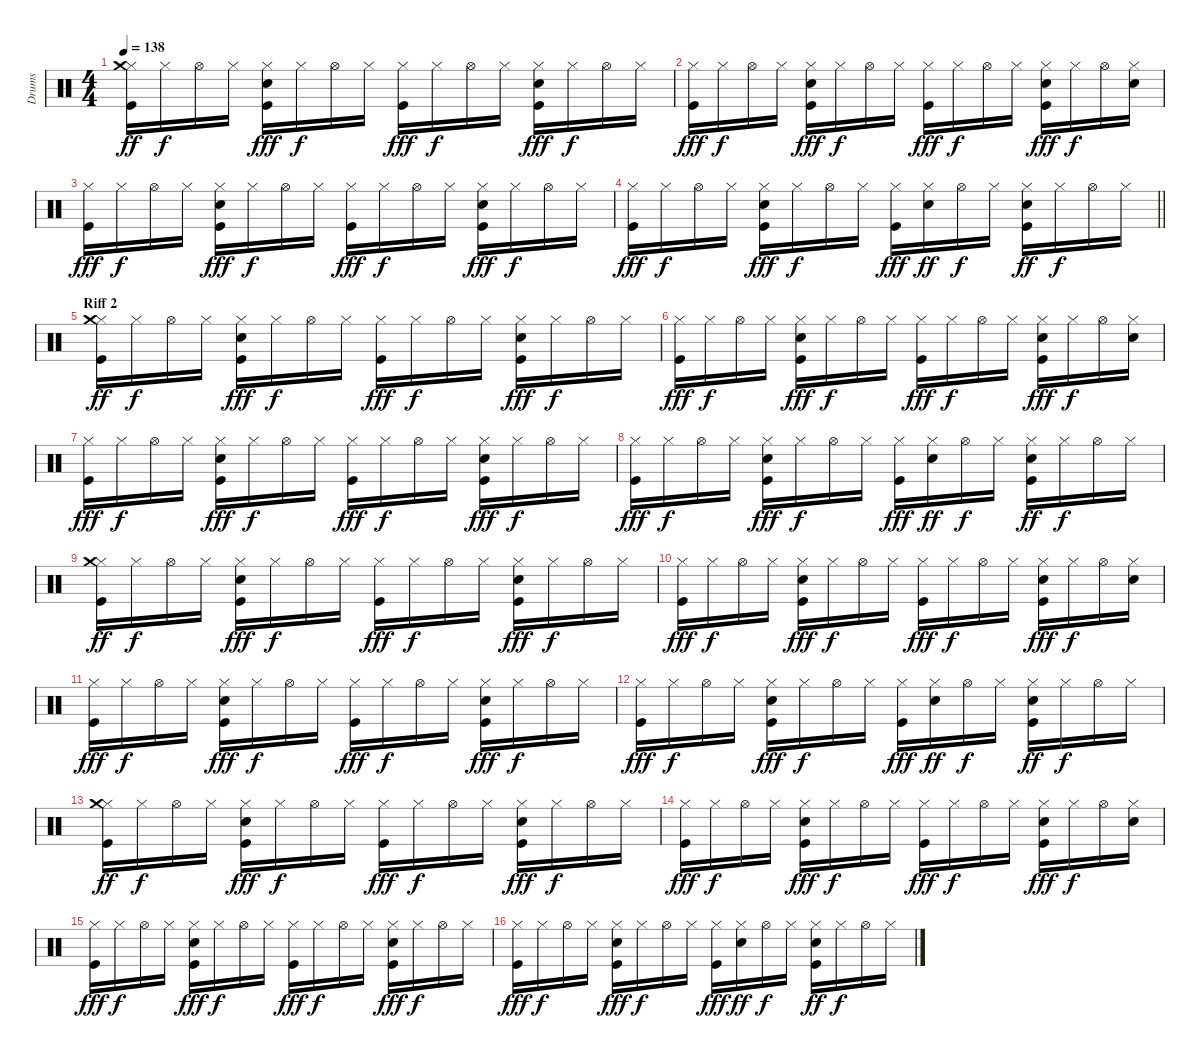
\track ("Drums" "Drums") {instrument percussion}
\staff {score}
\articulation defaults
\ts (4 4)
\tempo 138
\clef neutral
\ks c
("Kick (hit)" "Hi-Hat (closed)" "Crash medium (hit)").16{dy ff} "Hi-Hat (closed)".16{dy f} "Hi-Hat (open)".16 "Hi-Hat (closed)".16 ("Kick (hit)" "Electric Snare (hit)" "Hi-Hat (closed)").16{dy fff} "Hi-Hat (closed)".16{dy f} "Hi-Hat (open)".16 "Hi-Hat (closed)".16 ("Kick (hit)" "Hi-Hat (closed)").16{dy fff} "Hi-Hat (closed)".16{dy f} "Hi-Hat (open)".16 "Hi-Hat (closed)".16 ("Kick (hit)" "Electric Snare (hit)" "Hi-Hat (closed)").16{dy fff} "Hi-Hat (closed)".16{dy f} "Hi-Hat (open)".16 "Hi-Hat (closed)".16 |
("Kick (hit)" "Hi-Hat (closed)").16{dy fff} "Hi-Hat (closed)".16{dy f} "Hi-Hat (open)".16 "Hi-Hat (closed)".16 ("Kick (hit)" "Electric Snare (hit)" "Hi-Hat (closed)").16{dy fff} "Hi-Hat (closed)".16{dy f} "Hi-Hat (open)".16 "Hi-Hat (closed)".16 ("Kick (hit)" "Hi-Hat (closed)").16{dy fff} "Hi-Hat (closed)".16{dy f} "Hi-Hat (open)".16 "Hi-Hat (closed)".16 ("Kick (hit)" "Electric Snare (hit)" "Hi-Hat (closed)").16{dy fff} "Hi-Hat (closed)".16{dy f} "Hi-Hat (open)".16 ("Electric Snare (hit)" "Hi-Hat (closed)").16 |
("Kick (hit)" "Hi-Hat (closed)").16{dy fff} "Hi-Hat (closed)".16{dy f} "Hi-Hat (open)".16 "Hi-Hat (closed)".16 ("Kick (hit)" "Electric Snare (hit)" "Hi-Hat (closed)").16{dy fff} "Hi-Hat (closed)".16{dy f} "Hi-Hat (open)".16 "Hi-Hat (closed)".16 ("Kick (hit)" "Hi-Hat (closed)").16{dy fff} "Hi-Hat (closed)".16{dy f} "Hi-Hat (open)".16 "Hi-Hat (closed)".16 ("Kick (hit)" "Electric Snare (hit)" "Hi-Hat (closed)").16{dy fff} "Hi-Hat (closed)".16{dy f} "Hi-Hat (open)".16 "Hi-Hat (closed)".16 |
\barLineRight lightlight
("Kick (hit)" "Hi-Hat (closed)").16{dy fff} "Hi-Hat (closed)".16{dy f} "Hi-Hat (open)".16 "Hi-Hat (closed)".16 ("Kick (hit)" "Electric Snare (hit)" "Hi-Hat (closed)").16{dy fff} "Hi-Hat (closed)".16{dy f} "Hi-Hat (open)".16 "Hi-Hat (closed)".16 ("Kick (hit)" "Hi-Hat (closed)").16{dy fff} ("Electric Snare (hit)" "Hi-Hat (closed)").16{dy ff} "Hi-Hat (open)".16{dy f} "Hi-Hat (closed)".16 ("Kick (hit)" "Electric Snare (hit)" "Hi-Hat (closed)").16{dy ff} "Hi-Hat (closed)".16{dy f} "Hi-Hat (open)".16 "Hi-Hat (closed)".16 |
\section ("" "Riff 2")
("Kick (hit)" "Hi-Hat (closed)" "Crash medium (hit)").16{dy ff} "Hi-Hat (closed)".16{dy f} "Hi-Hat (open)".16 "Hi-Hat (closed)".16 ("Kick (hit)" "Electric Snare (hit)" "Hi-Hat (closed)").16{dy fff} "Hi-Hat (closed)".16{dy f} "Hi-Hat (open)".16 "Hi-Hat (closed)".16 ("Kick (hit)" "Hi-Hat (closed)").16{dy fff} "Hi-Hat (closed)".16{dy f} "Hi-Hat (open)".16 "Hi-Hat (closed)".16 ("Kick (hit)" "Electric Snare (hit)" "Hi-Hat (closed)").16{dy fff} "Hi-Hat (closed)".16{dy f} "Hi-Hat (open)".16 "Hi-Hat (closed)".16 |
("Kick (hit)" "Hi-Hat (closed)").16{dy fff} "Hi-Hat (closed)".16{dy f} "Hi-Hat (open)".16 "Hi-Hat (closed)".16 ("Kick (hit)" "Electric Snare (hit)" "Hi-Hat (closed)").16{dy fff} "Hi-Hat (closed)".16{dy f} "Hi-Hat (open)".16 "Hi-Hat (closed)".16 ("Kick (hit)" "Hi-Hat (closed)").16{dy fff} "Hi-Hat (closed)".16{dy f} "Hi-Hat (open)".16 "Hi-Hat (closed)".16 ("Kick (hit)" "Electric Snare (hit)" "Hi-Hat (closed)").16{dy fff} "Hi-Hat (closed)".16{dy f} "Hi-Hat (open)".16 ("Electric Snare (hit)" "Hi-Hat (closed)").16 |
("Kick (hit)" "Hi-Hat (closed)").16{dy fff} "Hi-Hat (closed)".16{dy f} "Hi-Hat (open)".16 "Hi-Hat (closed)".16 ("Kick (hit)" "Electric Snare (hit)" "Hi-Hat (closed)").16{dy fff} "Hi-Hat (closed)".16{dy f} "Hi-Hat (open)".16 "Hi-Hat (closed)".16 ("Kick (hit)" "Hi-Hat (closed)").16{dy fff} "Hi-Hat (closed)".16{dy f} "Hi-Hat (open)".16 "Hi-Hat (closed)".16 ("Kick (hit)" "Electric Snare (hit)" "Hi-Hat (closed)").16{dy fff} "Hi-Hat (closed)".16{dy f} "Hi-Hat (open)".16 "Hi-Hat (closed)".16 |
("Kick (hit)" "Hi-Hat (closed)").16{dy fff} "Hi-Hat (closed)".16{dy f} "Hi-Hat (open)".16 "Hi-Hat (closed)".16 ("Kick (hit)" "Electric Snare (hit)" "Hi-Hat (closed)").16{dy fff} "Hi-Hat (closed)".16{dy f} "Hi-Hat (open)".16 "Hi-Hat (closed)".16 ("Kick (hit)" "Hi-Hat (closed)").16{dy fff} ("Electric Snare (hit)" "Hi-Hat (closed)").16{dy ff} "Hi-Hat (open)".16{dy f} "Hi-Hat (closed)".16 ("Kick (hit)" "Electric Snare (hit)" "Hi-Hat (closed)").16{dy ff} "Hi-Hat (closed)".16{dy f} "Hi-Hat (open)".16 "Hi-Hat (closed)".16 |
("Kick (hit)" "Hi-Hat (closed)" "Crash medium (hit)").16{dy ff} "Hi-Hat (closed)".16{dy f} "Hi-Hat (open)".16 "Hi-Hat (closed)".16 ("Kick (hit)" "Electric Snare (hit)" "Hi-Hat (closed)").16{dy fff} "Hi-Hat (closed)".16{dy f} "Hi-Hat (open)".16 "Hi-Hat (closed)".16 ("Kick (hit)" "Hi-Hat (closed)").16{dy fff} "Hi-Hat (closed)".16{dy f} "Hi-Hat (open)".16 "Hi-Hat (closed)".16 ("Kick (hit)" "Electric Snare (hit)" "Hi-Hat (closed)").16{dy fff} "Hi-Hat (closed)".16{dy f} "Hi-Hat (open)".16 "Hi-Hat (closed)".16 |
("Kick (hit)" "Hi-Hat (closed)").16{dy fff} "Hi-Hat (closed)".16{dy f} "Hi-Hat (open)".16 "Hi-Hat (closed)".16 ("Kick (hit)" "Electric Snare (hit)" "Hi-Hat (closed)").16{dy fff} "Hi-Hat (closed)".16{dy f} "Hi-Hat (open)".16 "Hi-Hat (closed)".16 ("Kick (hit)" "Hi-Hat (closed)").16{dy fff} "Hi-Hat (closed)".16{dy f} "Hi-Hat (open)".16 "Hi-Hat (closed)".16 ("Kick (hit)" "Electric Snare (hit)" "Hi-Hat (closed)").16{dy fff} "Hi-Hat (closed)".16{dy f} "Hi-Hat (open)".16 ("Electric Snare (hit)" "Hi-Hat (closed)").16 |
("Kick (hit)" "Hi-Hat (closed)").16{dy fff} "Hi-Hat (closed)".16{dy f} "Hi-Hat (open)".16 "Hi-Hat (closed)".16 ("Kick (hit)" "Electric Snare (hit)" "Hi-Hat (closed)").16{dy fff} "Hi-Hat (closed)".16{dy f} "Hi-Hat (open)".16 "Hi-Hat (closed)".16 ("Kick (hit)" "Hi-Hat (closed)").16{dy fff} "Hi-Hat (closed)".16{dy f} "Hi-Hat (open)".16 "Hi-Hat (closed)".16 ("Kick (hit)" "Electric Snare (hit)" "Hi-Hat (closed)").16{dy fff} "Hi-Hat (closed)".16{dy f} "Hi-Hat (open)".16 "Hi-Hat (closed)".16 |
("Kick (hit)" "Hi-Hat (closed)").16{dy fff} "Hi-Hat (closed)".16{dy f} "Hi-Hat (open)".16 "Hi-Hat (closed)".16 ("Kick (hit)" "Electric Snare (hit)" "Hi-Hat (closed)").16{dy fff} "Hi-Hat (closed)".16{dy f} "Hi-Hat (open)".16 "Hi-Hat (closed)".16 ("Kick (hit)" "Hi-Hat (closed)").16{dy fff} ("Electric Snare (hit)" "Hi-Hat (closed)").16{dy ff} "Hi-Hat (open)".16{dy f} "Hi-Hat (closed)".16 ("Kick (hit)" "Electric Snare (hit)" "Hi-Hat (closed)").16{dy ff} "Hi-Hat (closed)".16{dy f} "Hi-Hat (open)".16 "Hi-Hat (closed)".16 |
("Kick (hit)" "Hi-Hat (closed)" "Crash medium (hit)").16{dy ff} "Hi-Hat (closed)".16{dy f} "Hi-Hat (open)".16 "Hi-Hat (closed)".16 ("Kick (hit)" "Electric Snare (hit)" "Hi-Hat (closed)").16{dy fff} "Hi-Hat (closed)".16{dy f} "Hi-Hat (open)".16 "Hi-Hat (closed)".16 ("Kick (hit)" "Hi-Hat (closed)").16{dy fff} "Hi-Hat (closed)".16{dy f} "Hi-Hat (open)".16 "Hi-Hat (closed)".16 ("Kick (hit)" "Electric Snare (hit)" "Hi-Hat (closed)").16{dy fff} "Hi-Hat (closed)".16{dy f} "Hi-Hat (open)".16 "Hi-Hat (closed)".16 |
("Kick (hit)" "Hi-Hat (closed)").16{dy fff} "Hi-Hat (closed)".16{dy f} "Hi-Hat (open)".16 "Hi-Hat (closed)".16 ("Kick (hit)" "Electric Snare (hit)" "Hi-Hat (closed)").16{dy fff} "Hi-Hat (closed)".16{dy f} "Hi-Hat (open)".16 "Hi-Hat (closed)".16 ("Kick (hit)" "Hi-Hat (closed)").16{dy fff} "Hi-Hat (closed)".16{dy f} "Hi-Hat (open)".16 "Hi-Hat (closed)".16 ("Kick (hit)" "Electric Snare (hit)" "Hi-Hat (closed)").16{dy fff} "Hi-Hat (closed)".16{dy f} "Hi-Hat (open)".16 ("Electric Snare (hit)" "Hi-Hat (closed)").16 |
("Kick (hit)" "Hi-Hat (closed)").16{dy fff} "Hi-Hat (closed)".16{dy f} "Hi-Hat (open)".16 "Hi-Hat (closed)".16 ("Kick (hit)" "Electric Snare (hit)" "Hi-Hat (closed)").16{dy fff} "Hi-Hat (closed)".16{dy f} "Hi-Hat (open)".16 "Hi-Hat (closed)".16 ("Kick (hit)" "Hi-Hat (closed)").16{dy fff} "Hi-Hat (closed)".16{dy f} "Hi-Hat (open)".16 "Hi-Hat (closed)".16 ("Kick (hit)" "Electric Snare (hit)" "Hi-Hat (closed)").16{dy fff} "Hi-Hat (closed)".16{dy f} "Hi-Hat (open)".16 "Hi-Hat (closed)".16 |
("Kick (hit)" "Hi-Hat (closed)").16{dy fff} "Hi-Hat (closed)".16{dy f} "Hi-Hat (open)".16 "Hi-Hat (closed)".16 ("Kick (hit)" "Electric Snare (hit)" "Hi-Hat (closed)").16{dy fff} "Hi-Hat (closed)".16{dy f} "Hi-Hat (open)".16 "Hi-Hat (closed)".16 ("Kick (hit)" "Hi-Hat (closed)").16{dy fff} ("Electric Snare (hit)" "Hi-Hat (closed)").16{dy ff} "Hi-Hat (open)".16{dy f} "Hi-Hat (closed)".16 ("Kick (hit)" "Electric Snare (hit)" "Hi-Hat (closed)").16{dy ff} "Hi-Hat (closed)".16{dy f} "Hi-Hat (open)".16 "Hi-Hat (closed)".16
